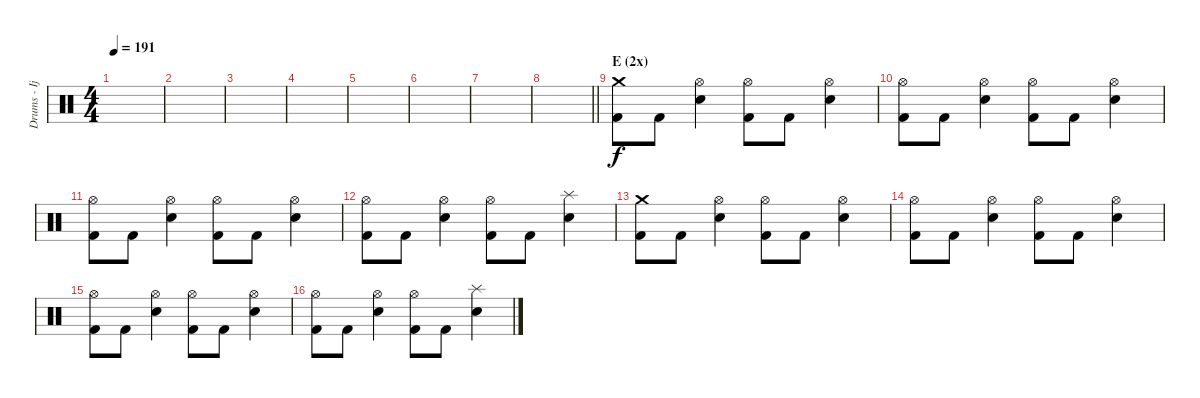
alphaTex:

\track ("Drums - Ijichi" "Drums - Ij") {instrument percussion}
\staff
\articulation defaults
\ts (4 4)
\tempo 191
\clef neutral
\ks c
|
|
|
|
|
|
|
\barLineRight lightlight
|
\section ("" "E (2x)")
("Crash medium (hit)" "Kick (hit) 2").8 "Kick (hit) 2".8 ("Hi-Hat (open)" "Electric Snare (hit)").4 ("Hi-Hat (open)" "Kick (hit) 2").8 "Kick (hit) 2".8 ("Hi-Hat (open)" "Electric Snare (hit)").4 |
("Hi-Hat (open)" "Kick (hit) 2").8 "Kick (hit) 2".8 ("Hi-Hat (open)" "Electric Snare (hit)").4 ("Hi-Hat (open)" "Kick (hit) 2").8 "Kick (hit) 2".8 ("Hi-Hat (open)" "Electric Snare (hit)").4 |
("Hi-Hat (open)" "Kick (hit) 2").8 "Kick (hit) 2".8 ("Hi-Hat (open)" "Electric Snare (hit)").4 ("Hi-Hat (open)" "Kick (hit) 2").8 "Kick (hit) 2".8 ("Hi-Hat (open)" "Electric Snare (hit)").4 |
("Hi-Hat (open)" "Kick (hit) 2").8 "Kick (hit) 2".8 ("Hi-Hat (open)" "Electric Snare (hit)").4 ("Hi-Hat (open)" "Kick (hit) 2").8 "Kick (hit) 2".8 ("Splash (hit)" "Electric Snare (hit)").4 |
("Crash medium (hit)" "Kick (hit) 2").8 "Kick (hit) 2".8 ("Hi-Hat (open)" "Electric Snare (hit)").4 ("Hi-Hat (open)" "Kick (hit) 2").8 "Kick (hit) 2".8 ("Hi-Hat (open)" "Electric Snare (hit)").4 |
("Hi-Hat (open)" "Kick (hit) 2").8 "Kick (hit) 2".8 ("Hi-Hat (open)" "Electric Snare (hit)").4 ("Hi-Hat (open)" "Kick (hit) 2").8 "Kick (hit) 2".8 ("Hi-Hat (open)" "Electric Snare (hit)").4 |
("Hi-Hat (open)" "Kick (hit) 2").8 "Kick (hit) 2".8 ("Hi-Hat (open)" "Electric Snare (hit)").4 ("Hi-Hat (open)" "Kick (hit) 2").8 "Kick (hit) 2".8 ("Hi-Hat (open)" "Electric Snare (hit)").4 |
("Hi-Hat (open)" "Kick (hit) 2").8 "Kick (hit) 2".8 ("Hi-Hat (open)" "Electric Snare (hit)").4 ("Hi-Hat (open)" "Kick (hit) 2").8 "Kick (hit) 2".8 ("Splash (hit)" "Electric Snare (hit)").4
